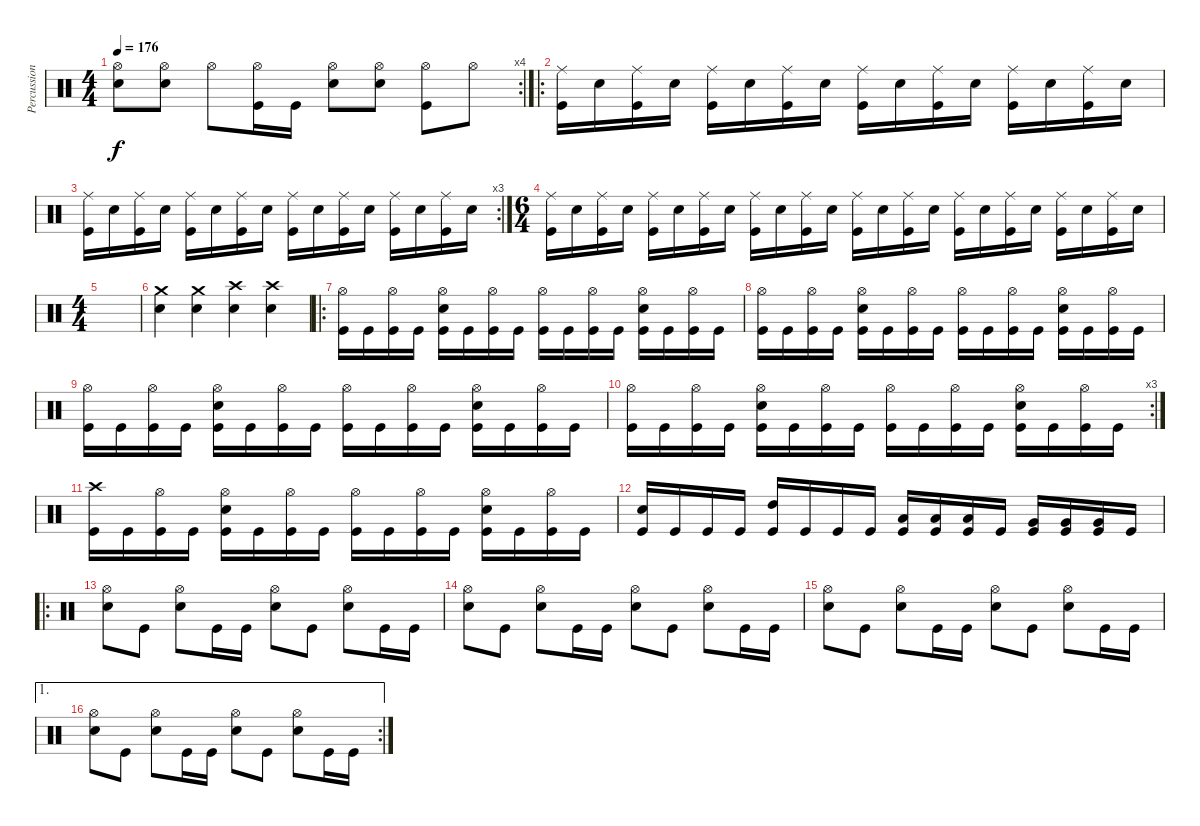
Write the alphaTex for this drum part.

\track ("Percussions" "Percussion") {instrument percussion}
\staff {score}
\articulation defaults
\rc 4
\ts (4 4)
\tempo 176
\clef neutral
\ks c
("Hi-Hat (open)" "Snare (hit) 2").8{dy f} ("Hi-Hat (open)" "Snare (hit) 2").8 "Hi-Hat (open)".8 ("Hi-Hat (open)" "Kick (hit)").16 "Kick (hit)".16 ("Hi-Hat (open)" "Snare (hit) 2").8 ("Hi-Hat (open)" "Snare (hit) 2").8 ("Hi-Hat (open)" "Kick (hit)").8 "Hi-Hat (open)".8 |
\ro
("Ride (middle)" "Kick (hit)").16 "Snare (hit) 2".16 ("Ride (middle)" "Kick (hit)").16 "Snare (hit) 2".16 ("Ride (middle)" "Kick (hit)").16 "Snare (hit) 2".16 ("Ride (middle)" "Kick (hit)").16 "Snare (hit) 2".16 ("Ride (middle)" "Kick (hit)").16 "Snare (hit) 2".16 ("Ride (middle)" "Kick (hit)").16 "Snare (hit) 2".16 ("Ride (middle)" "Kick (hit)").16 "Snare (hit) 2".16 ("Ride (middle)" "Kick (hit)").16 "Snare (hit) 2".16 |
\rc 3
("Ride (middle)" "Kick (hit)").16 "Snare (hit) 2".16 ("Ride (middle)" "Kick (hit)").16 "Snare (hit) 2".16 ("Ride (middle)" "Kick (hit)").16 "Snare (hit) 2".16 ("Ride (middle)" "Kick (hit)").16 "Snare (hit) 2".16 ("Ride (middle)" "Kick (hit)").16 "Snare (hit) 2".16 ("Ride (middle)" "Kick (hit)").16 "Snare (hit) 2".16 ("Ride (middle)" "Kick (hit)").16 "Snare (hit) 2".16 ("Ride (middle)" "Kick (hit)").16 "Snare (hit) 2".16 |
\ts (6 4)
("Ride (middle)" "Kick (hit)").16 "Snare (hit) 2".16 ("Ride (middle)" "Kick (hit)").16 "Snare (hit) 2".16 ("Ride (middle)" "Kick (hit)").16 "Snare (hit) 2".16 ("Ride (middle)" "Kick (hit)").16 "Snare (hit) 2".16 ("Ride (middle)" "Kick (hit)").16 "Snare (hit) 2".16 ("Ride (middle)" "Kick (hit)").16 "Snare (hit) 2".16 ("Ride (middle)" "Kick (hit)").16 "Snare (hit) 2".16 ("Ride (middle)" "Kick (hit)").16 "Snare (hit) 2".16 ("Ride (middle)" "Kick (hit)").16 "Snare (hit) 2".16 ("Ride (middle)" "Kick (hit)").16 "Snare (hit) 2".16 ("Ride (middle)" "Kick (hit)").16 "Snare (hit) 2".16 ("Ride (middle)" "Kick (hit)").16 "Snare (hit) 2".16 |
\ts (4 4)
|
("Crash medium (hit)" "Snare (hit) 2").4 ("Crash medium (hit)" "Snare (hit) 2").4 ("Crash high (hit)" "Snare (hit) 2").4 ("Crash high (hit)" "Snare (hit) 2").4 |
\ro
("Hi-Hat (open)" "Kick (hit)").16 "Kick (hit)".16 ("Hi-Hat (open)" "Kick (hit)").16 "Kick (hit)".16 ("Hi-Hat (open)" "Snare (hit) 2" "Kick (hit)").16 "Kick (hit)".16 ("Hi-Hat (open)" "Kick (hit)").16 "Kick (hit)".16 ("Hi-Hat (open)" "Kick (hit)").16 "Kick (hit)".16 ("Hi-Hat (open)" "Kick (hit)").16 "Kick (hit)".16 ("Hi-Hat (open)" "Snare (hit) 2" "Kick (hit)").16 "Kick (hit)".16 ("Hi-Hat (open)" "Kick (hit)").16 "Kick (hit)".16 |
("Hi-Hat (open)" "Kick (hit)").16 "Kick (hit)".16 ("Hi-Hat (open)" "Kick (hit)").16 "Kick (hit)".16 ("Hi-Hat (open)" "Snare (hit) 2" "Kick (hit)").16 "Kick (hit)".16 ("Hi-Hat (open)" "Kick (hit)").16 "Kick (hit)".16 ("Hi-Hat (open)" "Kick (hit)").16 "Kick (hit)".16 ("Hi-Hat (open)" "Kick (hit)").16 "Kick (hit)".16 ("Hi-Hat (open)" "Snare (hit) 2" "Kick (hit)").16 "Kick (hit)".16 ("Hi-Hat (open)" "Kick (hit)").16 "Kick (hit)".16 |
("Hi-Hat (open)" "Kick (hit)").16 "Kick (hit)".16 ("Hi-Hat (open)" "Kick (hit)").16 "Kick (hit)".16 ("Hi-Hat (open)" "Snare (hit) 2" "Kick (hit)").16 "Kick (hit)".16 ("Hi-Hat (open)" "Kick (hit)").16 "Kick (hit)".16 ("Hi-Hat (open)" "Kick (hit)").16 "Kick (hit)".16 ("Hi-Hat (open)" "Kick (hit)").16 "Kick (hit)".16 ("Hi-Hat (open)" "Snare (hit) 2" "Kick (hit)").16 "Kick (hit)".16 ("Hi-Hat (open)" "Kick (hit)").16 "Kick (hit)".16 |
\rc 3
("Hi-Hat (open)" "Kick (hit)").16 "Kick (hit)".16 ("Hi-Hat (open)" "Kick (hit)").16 "Kick (hit)".16 ("Hi-Hat (open)" "Snare (hit) 2" "Kick (hit)").16 "Kick (hit)".16 ("Hi-Hat (open)" "Kick (hit)").16 "Kick (hit)".16 ("Hi-Hat (open)" "Kick (hit)").16 "Kick (hit)".16 ("Hi-Hat (open)" "Kick (hit)").16 "Kick (hit)".16 ("Hi-Hat (open)" "Snare (hit) 2" "Kick (hit)").16 "Kick (hit)".16 ("Hi-Hat (open)" "Kick (hit)").16 "Kick (hit)".16 |
("Crash high (hit)" "Kick (hit)").16 "Kick (hit)".16 ("Hi-Hat (open)" "Kick (hit)").16 "Kick (hit)".16 ("Hi-Hat (open)" "Snare (hit) 2" "Kick (hit)").16 "Kick (hit)".16 ("Hi-Hat (open)" "Kick (hit)").16 "Kick (hit)".16 ("Hi-Hat (open)" "Kick (hit)").16 "Kick (hit)".16 ("Hi-Hat (open)" "Kick (hit)").16 "Kick (hit)".16 ("Hi-Hat (open)" "Snare (hit) 2" "Kick (hit)").16 "Kick (hit)".16 ("Hi-Hat (open)" "Kick (hit)").16 "Kick (hit)".16 |
("Snare (hit) 2" "Kick (hit)").16 "Kick (hit)".16 "Kick (hit)".16 "Kick (hit)".16 ("High Tom (hit)" "Kick (hit)").16 "Kick (hit)".16 "Kick (hit)".16 "Kick (hit)".16 ("Low Tom (hit)" "Kick (hit)").16 ("Low Tom (hit)" "Kick (hit)").16 ("Low Tom (hit)" "Kick (hit)").16 "Kick (hit)".16 ("Very Low Tom (hit)" "Kick (hit)").16 ("Very Low Tom (hit)" "Kick (hit)").16 ("Very Low Tom (hit)" "Kick (hit)").16 "Kick (hit)".16 |
\ro
("Hi-Hat (open)" "Snare (hit) 2").8 "Kick (hit)".8 ("Hi-Hat (open)" "Snare (hit) 2").8 "Kick (hit)".16 "Kick (hit)".16 ("Hi-Hat (open)" "Snare (hit) 2").8 "Kick (hit)".8 ("Hi-Hat (open)" "Snare (hit) 2").8 "Kick (hit)".16 "Kick (hit)".16 |
("Hi-Hat (open)" "Snare (hit) 2").8 "Kick (hit)".8 ("Hi-Hat (open)" "Snare (hit) 2").8 "Kick (hit)".16 "Kick (hit)".16 ("Hi-Hat (open)" "Snare (hit) 2").8 "Kick (hit)".8 ("Hi-Hat (open)" "Snare (hit) 2").8 "Kick (hit)".16 "Kick (hit)".16 |
("Hi-Hat (open)" "Snare (hit) 2").8 "Kick (hit)".8 ("Hi-Hat (open)" "Snare (hit) 2").8 "Kick (hit)".16 "Kick (hit)".16 ("Hi-Hat (open)" "Snare (hit) 2").8 "Kick (hit)".8 ("Hi-Hat (open)" "Snare (hit) 2").8 "Kick (hit)".16 "Kick (hit)".16 |
\ae 1
\rc 2
("Hi-Hat (open)" "Snare (hit) 2").8 "Kick (hit)".8 ("Hi-Hat (open)" "Snare (hit) 2").8 "Kick (hit)".16 "Kick (hit)".16 ("Hi-Hat (open)" "Snare (hit) 2").8 "Kick (hit)".8 ("Hi-Hat (open)" "Snare (hit) 2").8 "Kick (hit)".16 "Kick (hit)".16
